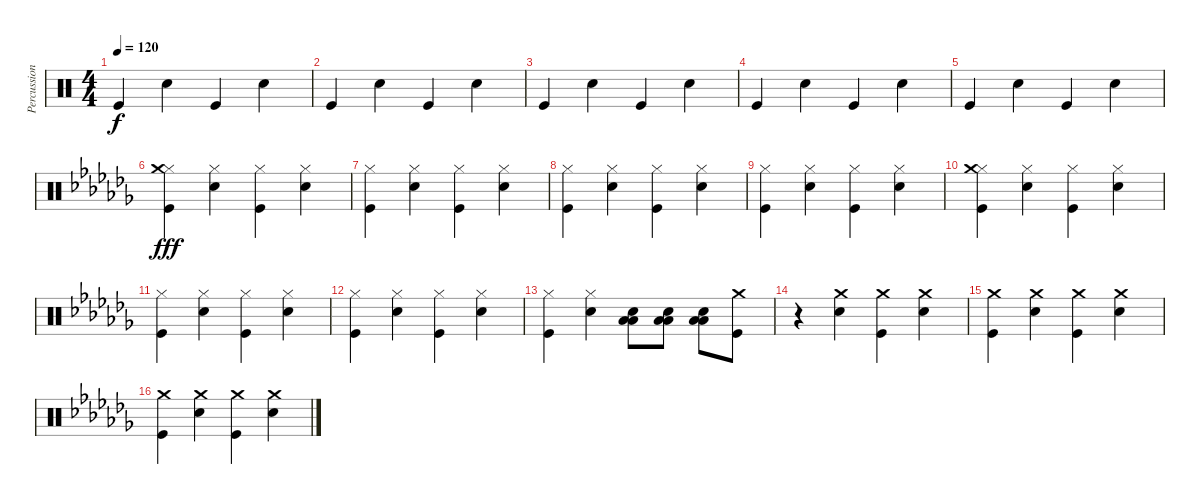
\track ("Percussion" "Percussion") {instrument percussion}
\staff {score}
\articulation defaults
\ts (4 4)
\tempo 120
\clef neutral
\ks aminor "Kick (hit)".4{dy f} "Snare (hit) 2".4 "Kick (hit)".4 "Snare (hit) 2".4
|
"Kick (hit)".4 "Snare (hit) 2".4 "Kick (hit)".4 "Snare (hit) 2".4 |
"Kick (hit)".4 "Snare (hit) 2".4 "Kick (hit)".4 "Snare (hit) 2".4 |
"Kick (hit)".4 "Snare (hit) 2".4 "Kick (hit)".4 "Snare (hit) 2".4 |
"Kick (hit)".4 "Snare (hit) 2".4 "Kick (hit)".4 "Snare (hit) 2".4 |
\ks abminor
("Hi-Hat (closed)" "Kick (hit)" "Crash medium (hit)").4{dy fff} ("Hi-Hat (closed)" "Snare (hit) 2").4 ("Hi-Hat (closed)" "Kick (hit)").4 ("Hi-Hat (closed)" "Snare (hit) 2").4 |
("Hi-Hat (closed)" "Kick (hit)").4 ("Hi-Hat (closed)" "Snare (hit) 2").4 ("Hi-Hat (closed)" "Kick (hit)").4 ("Hi-Hat (closed)" "Snare (hit) 2").4 |
("Hi-Hat (closed)" "Kick (hit)").4 ("Hi-Hat (closed)" "Snare (hit) 2").4 ("Hi-Hat (closed)" "Kick (hit)").4 ("Hi-Hat (closed)" "Snare (hit) 2").4 |
("Hi-Hat (closed)" "Kick (hit)").4 ("Hi-Hat (closed)" "Snare (hit) 2").4 ("Hi-Hat (closed)" "Kick (hit)").4 ("Hi-Hat (closed)" "Snare (hit) 2").4 |
("Hi-Hat (closed)" "Kick (hit)" "Crash medium (hit)").4 ("Hi-Hat (closed)" "Snare (hit) 2").4 ("Hi-Hat (closed)" "Kick (hit)").4 ("Hi-Hat (closed)" "Snare (hit) 2").4 |
("Hi-Hat (closed)" "Kick (hit)").4 ("Hi-Hat (closed)" "Snare (hit) 2").4 ("Hi-Hat (closed)" "Kick (hit)").4 ("Hi-Hat (closed)" "Snare (hit) 2").4 |
("Hi-Hat (closed)" "Kick (hit)").4 ("Hi-Hat (closed)" "Snare (hit) 2").4 ("Hi-Hat (closed)" "Kick (hit)").4 ("Hi-Hat (closed)" "Snare (hit) 2").4 |
("Hi-Hat (closed)" "Kick (hit)").4 ("Hi-Hat (closed)" "Snare (hit) 2").4 ("Snare (hit) 2" "Low Tom (hit)" "Low Floor Tom (hit)").8 ("Snare (hit) 2" "Low Tom (hit)" "Low Floor Tom (hit)").8 ("Snare (hit) 2" "Low Tom (hit)" "Low Floor Tom (hit)").8 ("Crash medium (hit)" "Kick (hit)").8 |
r.4 ("Crash medium (hit)" "Snare (hit) 2").4 ("Crash medium (hit)" "Kick (hit)").4 ("Crash medium (hit)" "Snare (hit) 2").4 |
("Crash medium (hit)" "Kick (hit)").4 ("Crash medium (hit)" "Snare (hit) 2").4 ("Crash medium (hit)" "Kick (hit)").4 ("Crash medium (hit)" "Snare (hit) 2").4 |
("Crash medium (hit)" "Kick (hit)").4 ("Crash medium (hit)" "Snare (hit) 2").4 ("Crash medium (hit)" "Kick (hit)").4 ("Crash medium (hit)" "Snare (hit) 2").4
